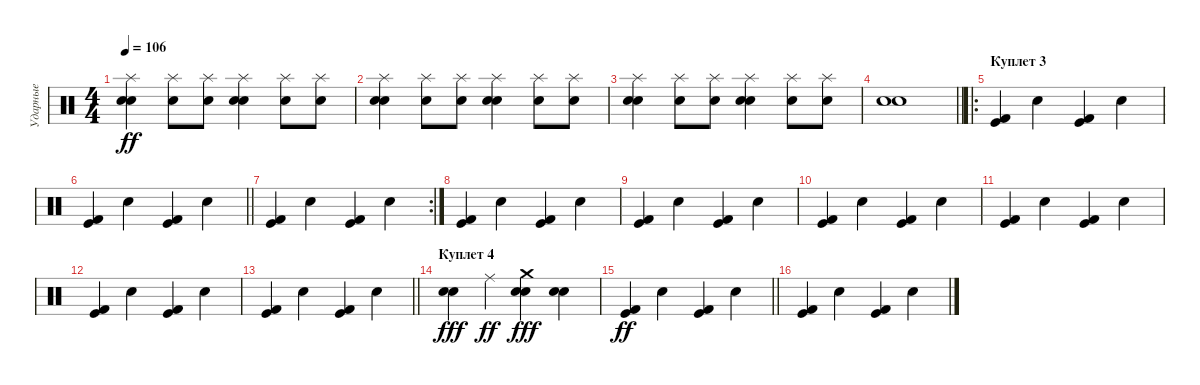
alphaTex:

\track ("Ударные" "Ударные") {instrument percussion}
\staff {score}
\articulation defaults
\ts (4 4)
\tempo 106
\clef neutral
\ks c
("Snare (hit) 2" "Electric Snare (hit)" "Splash (hit)").4{dy ff} ("Electric Snare (hit)" "Splash (hit)").8 ("Electric Snare (hit)" "Splash (hit)").8 ("Snare (hit) 2" "Electric Snare (hit)" "Splash (hit)").4 ("Electric Snare (hit)" "Splash (hit)").8 ("Electric Snare (hit)" "Splash (hit)").8 |
("Snare (hit) 2" "Electric Snare (hit)" "Splash (hit)").4 ("Electric Snare (hit)" "Splash (hit)").8 ("Electric Snare (hit)" "Splash (hit)").8 ("Snare (hit) 2" "Electric Snare (hit)" "Splash (hit)").4 ("Electric Snare (hit)" "Splash (hit)").8 ("Electric Snare (hit)" "Splash (hit)").8 |
("Snare (hit) 2" "Electric Snare (hit)" "Splash (hit)").4 ("Electric Snare (hit)" "Splash (hit)").8 ("Electric Snare (hit)" "Splash (hit)").8 ("Snare (hit) 2" "Electric Snare (hit)" "Splash (hit)").4 ("Electric Snare (hit)" "Splash (hit)").8 ("Electric Snare (hit)" "Splash (hit)").8 |
\barLineRight lightlight
("Snare (hit) 2" "Electric Snare (hit)").1 |
\ro
\section ("" "Куплет 3")
("Kick (hit) 2" "Kick (hit)").4 "Snare (hit) 2".4 ("Kick (hit) 2" "Kick (hit)").4 "Snare (hit) 2".4 |
\barLineRight lightlight
("Kick (hit) 2" "Kick (hit)").4 "Snare (hit) 2".4 ("Kick (hit) 2" "Kick (hit)").4 "Snare (hit) 2".4 |
\rc 2
("Kick (hit) 2" "Kick (hit)").4 "Snare (hit) 2".4 ("Kick (hit) 2" "Kick (hit)").4 "Snare (hit) 2".4 |
("Kick (hit) 2" "Kick (hit)").4 "Snare (hit) 2".4 ("Kick (hit) 2" "Kick (hit)").4 "Snare (hit) 2".4 |
("Kick (hit) 2" "Kick (hit)").4 "Snare (hit) 2".4 ("Kick (hit) 2" "Kick (hit)").4 "Snare (hit) 2".4 |
("Kick (hit) 2" "Kick (hit)").4 "Snare (hit) 2".4 ("Kick (hit) 2" "Kick (hit)").4 "Snare (hit) 2".4 |
("Kick (hit) 2" "Kick (hit)").4 "Snare (hit) 2".4 ("Kick (hit) 2" "Kick (hit)").4 "Snare (hit) 2".4 |
("Kick (hit) 2" "Kick (hit)").4 "Snare (hit) 2".4 ("Kick (hit) 2" "Kick (hit)").4 "Snare (hit) 2".4 |
\barLineRight lightlight
("Kick (hit) 2" "Kick (hit)").4 "Snare (hit) 2".4 ("Kick (hit) 2" "Kick (hit)").4 "Snare (hit) 2".4 |
\section ("" "Куплет 4")
("Snare (hit) 2" "Electric Snare (hit)").4{dy fff} "Ride (middle)".4{dy ff} ("Snare (hit) 2" "Electric Snare (hit)" "Crash medium (hit)").4{dy fff} ("Snare (hit) 2" "Electric Snare (hit)").4 |
\barLineRight lightlight
("Kick (hit) 2" "Kick (hit)").4{dy ff} "Snare (hit) 2".4 ("Kick (hit) 2" "Kick (hit)").4 "Snare (hit) 2".4 |
("Kick (hit) 2" "Kick (hit)").4 "Snare (hit) 2".4 ("Kick (hit) 2" "Kick (hit)").4 "Snare (hit) 2".4
